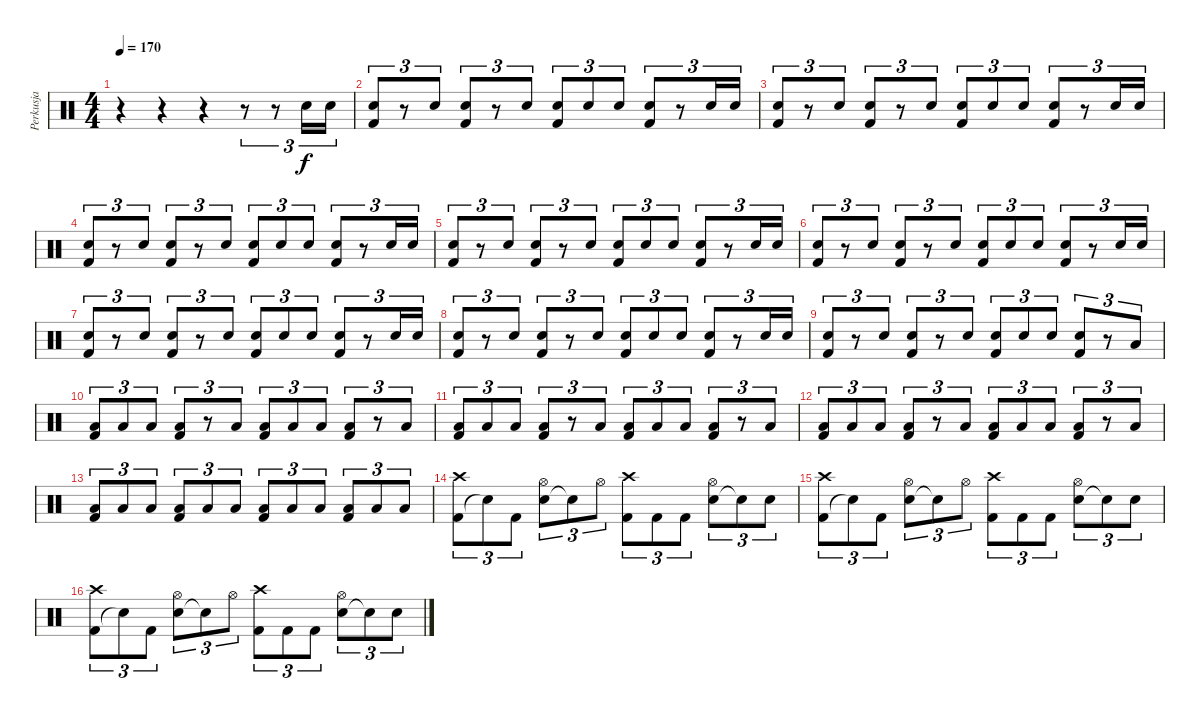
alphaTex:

\track ("Perkusja" "Perkusja") {instrument percussion}
\staff {score}
\articulation defaults
\ts (4 4)
\tempo 170
\clef neutral
\ks c
r.4{dy f} r.4 r.4 r.8{tu (3 2)} r.8{tu (3 2)} "Electric Snare (hit)".16{tu (3 2)} "Electric Snare (hit)".16{tu (3 2)} |
("Electric Snare (hit)" "Kick (hit) 2").8{tu (3 2)} r.8{tu (3 2)} "Electric Snare (hit)".8{tu (3 2)} ("Electric Snare (hit)" "Kick (hit) 2").8{tu (3 2)} r.8{tu (3 2)} "Electric Snare (hit)".8{tu (3 2)} ("Electric Snare (hit)" "Kick (hit) 2").8{tu (3 2)} "Electric Snare (hit)".8{tu (3 2)} "Electric Snare (hit)".8{tu (3 2)} ("Electric Snare (hit)" "Kick (hit) 2").8{tu (3 2)} r.8{tu (3 2)} "Electric Snare (hit)".16{tu (3 2)} "Electric Snare (hit)".16{tu (3 2)} |
("Electric Snare (hit)" "Kick (hit) 2").8{tu (3 2)} r.8{tu (3 2)} "Electric Snare (hit)".8{tu (3 2)} ("Electric Snare (hit)" "Kick (hit) 2").8{tu (3 2)} r.8{tu (3 2)} "Electric Snare (hit)".8{tu (3 2)} ("Electric Snare (hit)" "Kick (hit) 2").8{tu (3 2)} "Electric Snare (hit)".8{tu (3 2)} "Electric Snare (hit)".8{tu (3 2)} ("Electric Snare (hit)" "Kick (hit) 2").8{tu (3 2)} r.8{tu (3 2)} "Electric Snare (hit)".16{tu (3 2)} "Electric Snare (hit)".16{tu (3 2)} |
("Electric Snare (hit)" "Kick (hit) 2").8{tu (3 2)} r.8{tu (3 2)} "Electric Snare (hit)".8{tu (3 2)} ("Electric Snare (hit)" "Kick (hit) 2").8{tu (3 2)} r.8{tu (3 2)} "Electric Snare (hit)".8{tu (3 2)} ("Electric Snare (hit)" "Kick (hit) 2").8{tu (3 2)} "Electric Snare (hit)".8{tu (3 2)} "Electric Snare (hit)".8{tu (3 2)} ("Electric Snare (hit)" "Kick (hit) 2").8{tu (3 2)} r.8{tu (3 2)} "Electric Snare (hit)".16{tu (3 2)} "Electric Snare (hit)".16{tu (3 2)} |
("Electric Snare (hit)" "Kick (hit) 2").8{tu (3 2)} r.8{tu (3 2)} "Electric Snare (hit)".8{tu (3 2)} ("Electric Snare (hit)" "Kick (hit) 2").8{tu (3 2)} r.8{tu (3 2)} "Electric Snare (hit)".8{tu (3 2)} ("Electric Snare (hit)" "Kick (hit) 2").8{tu (3 2)} "Electric Snare (hit)".8{tu (3 2)} "Electric Snare (hit)".8{tu (3 2)} ("Electric Snare (hit)" "Kick (hit) 2").8{tu (3 2)} r.8{tu (3 2)} "Electric Snare (hit)".16{tu (3 2)} "Electric Snare (hit)".16{tu (3 2)} |
("Electric Snare (hit)" "Kick (hit) 2").8{tu (3 2)} r.8{tu (3 2)} "Electric Snare (hit)".8{tu (3 2)} ("Electric Snare (hit)" "Kick (hit) 2").8{tu (3 2)} r.8{tu (3 2)} "Electric Snare (hit)".8{tu (3 2)} ("Electric Snare (hit)" "Kick (hit) 2").8{tu (3 2)} "Electric Snare (hit)".8{tu (3 2)} "Electric Snare (hit)".8{tu (3 2)} ("Electric Snare (hit)" "Kick (hit) 2").8{tu (3 2)} r.8{tu (3 2)} "Electric Snare (hit)".16{tu (3 2)} "Electric Snare (hit)".16{tu (3 2)} |
("Electric Snare (hit)" "Kick (hit) 2").8{tu (3 2)} r.8{tu (3 2)} "Electric Snare (hit)".8{tu (3 2)} ("Electric Snare (hit)" "Kick (hit) 2").8{tu (3 2)} r.8{tu (3 2)} "Electric Snare (hit)".8{tu (3 2)} ("Electric Snare (hit)" "Kick (hit) 2").8{tu (3 2)} "Electric Snare (hit)".8{tu (3 2)} "Electric Snare (hit)".8{tu (3 2)} ("Electric Snare (hit)" "Kick (hit) 2").8{tu (3 2)} r.8{tu (3 2)} "Electric Snare (hit)".16{tu (3 2)} "Electric Snare (hit)".16{tu (3 2)} |
("Electric Snare (hit)" "Kick (hit) 2").8{tu (3 2)} r.8{tu (3 2)} "Electric Snare (hit)".8{tu (3 2)} ("Electric Snare (hit)" "Kick (hit) 2").8{tu (3 2)} r.8{tu (3 2)} "Electric Snare (hit)".8{tu (3 2)} ("Electric Snare (hit)" "Kick (hit) 2").8{tu (3 2)} "Electric Snare (hit)".8{tu (3 2)} "Electric Snare (hit)".8{tu (3 2)} ("Electric Snare (hit)" "Kick (hit) 2").8{tu (3 2)} r.8{tu (3 2)} "Electric Snare (hit)".16{tu (3 2)} "Electric Snare (hit)".16{tu (3 2)} |
("Electric Snare (hit)" "Kick (hit) 2").8{tu (3 2)} r.8{tu (3 2)} "Electric Snare (hit)".8{tu (3 2)} ("Electric Snare (hit)" "Kick (hit) 2").8{tu (3 2)} r.8{tu (3 2)} "Electric Snare (hit)".8{tu (3 2)} ("Electric Snare (hit)" "Kick (hit) 2").8{tu (3 2)} "Electric Snare (hit)".8{tu (3 2)} "Electric Snare (hit)".8{tu (3 2)} ("Electric Snare (hit)" "Kick (hit) 2").8{tu (3 2)} r.8{tu (3 2)} "Low Floor Tom (hit)".8{tu (3 2)} |
("Low Floor Tom (hit)" "Kick (hit) 2").8{tu (3 2)} "Low Floor Tom (hit)".8{tu (3 2)} "Low Floor Tom (hit)".8{tu (3 2)} ("Low Floor Tom (hit)" "Kick (hit) 2").8{tu (3 2)} r.8{tu (3 2)} "Low Floor Tom (hit)".8{tu (3 2)} ("Low Floor Tom (hit)" "Kick (hit) 2").8{tu (3 2)} "Low Floor Tom (hit)".8{tu (3 2)} "Low Floor Tom (hit)".8{tu (3 2)} ("Low Floor Tom (hit)" "Kick (hit) 2").8{tu (3 2)} r.8{tu (3 2)} "Low Floor Tom (hit)".8{tu (3 2)} |
("Low Floor Tom (hit)" "Kick (hit) 2").8{tu (3 2)} "Low Floor Tom (hit)".8{tu (3 2)} "Low Floor Tom (hit)".8{tu (3 2)} ("Low Floor Tom (hit)" "Kick (hit) 2").8{tu (3 2)} r.8{tu (3 2)} "Low Floor Tom (hit)".8{tu (3 2)} ("Low Floor Tom (hit)" "Kick (hit) 2").8{tu (3 2)} "Low Floor Tom (hit)".8{tu (3 2)} "Low Floor Tom (hit)".8{tu (3 2)} ("Low Floor Tom (hit)" "Kick (hit) 2").8{tu (3 2)} r.8{tu (3 2)} "Low Floor Tom (hit)".8{tu (3 2)} |
("Low Floor Tom (hit)" "Kick (hit) 2").8{tu (3 2)} "Low Floor Tom (hit)".8{tu (3 2)} "Low Floor Tom (hit)".8{tu (3 2)} ("Low Floor Tom (hit)" "Kick (hit) 2").8{tu (3 2)} r.8{tu (3 2)} "Low Floor Tom (hit)".8{tu (3 2)} ("Low Floor Tom (hit)" "Kick (hit) 2").8{tu (3 2)} "Low Floor Tom (hit)".8{tu (3 2)} "Low Floor Tom (hit)".8{tu (3 2)} ("Low Floor Tom (hit)" "Kick (hit) 2").8{tu (3 2)} r.8{tu (3 2)} "Low Floor Tom (hit)".8{tu (3 2)} |
("Low Floor Tom (hit)" "Kick (hit) 2").8{tu (3 2)} "Low Floor Tom (hit)".8{tu (3 2)} "Low Floor Tom (hit)".8{tu (3 2)} ("Low Floor Tom (hit)" "Kick (hit) 2").8{tu (3 2)} "Low Floor Tom (hit)".8{tu (3 2)} "Low Floor Tom (hit)".8{tu (3 2)} ("Low Floor Tom (hit)" "Kick (hit) 2").8{tu (3 2)} "Low Floor Tom (hit)".8{tu (3 2)} "Low Floor Tom (hit)".8{tu (3 2)} ("Low Floor Tom (hit)" "Kick (hit) 2").8{tu (3 2)} "Low Floor Tom (hit)".8{tu (3 2)} "Low Floor Tom (hit)".8{tu (3 2)} |
("Kick (hit) 2" "Crash high (hit)").8{tu (3 2)} "Snare (hit)"{t}.8{tu (3 2)} "Kick (hit) 2".8{tu (3 2)} ("Electric Snare (hit)" "Hi-Hat (open)").8{tu (3 2)} "Snare (hit)"{t}.8{tu (3 2)} "Hi-Hat (open)".8{tu (3 2)} ("Kick (hit) 2" "Crash high (hit)").8{tu (3 2)} "Kick (hit) 2".8{tu (3 2)} "Kick (hit) 2".8{tu (3 2)} ("Electric Snare (hit)" "Hi-Hat (open)").8{tu (3 2)} "Snare (hit)"{t}.8{tu (3 2)} "Electric Snare (hit)".8{tu (3 2)} |
("Kick (hit) 2" "Crash high (hit)").8{tu (3 2)} "Snare (hit)"{t}.8{tu (3 2)} "Kick (hit) 2".8{tu (3 2)} ("Electric Snare (hit)" "Hi-Hat (open)").8{tu (3 2)} "Snare (hit)"{t}.8{tu (3 2)} "Hi-Hat (open)".8{tu (3 2)} ("Kick (hit) 2" "Crash high (hit)").8{tu (3 2)} "Kick (hit) 2".8{tu (3 2)} "Kick (hit) 2".8{tu (3 2)} ("Electric Snare (hit)" "Hi-Hat (open)").8{tu (3 2)} "Snare (hit)"{t}.8{tu (3 2)} "Electric Snare (hit)".8{tu (3 2)} |
("Kick (hit) 2" "Crash high (hit)").8{tu (3 2)} "Snare (hit)"{t}.8{tu (3 2)} "Kick (hit) 2".8{tu (3 2)} ("Electric Snare (hit)" "Hi-Hat (open)").8{tu (3 2)} "Snare (hit)"{t}.8{tu (3 2)} "Hi-Hat (open)".8{tu (3 2)} ("Kick (hit) 2" "Crash high (hit)").8{tu (3 2)} "Kick (hit) 2".8{tu (3 2)} "Kick (hit) 2".8{tu (3 2)} ("Electric Snare (hit)" "Hi-Hat (open)").8{tu (3 2)} "Snare (hit)"{t}.8{tu (3 2)} "Electric Snare (hit)".8{tu (3 2)}
